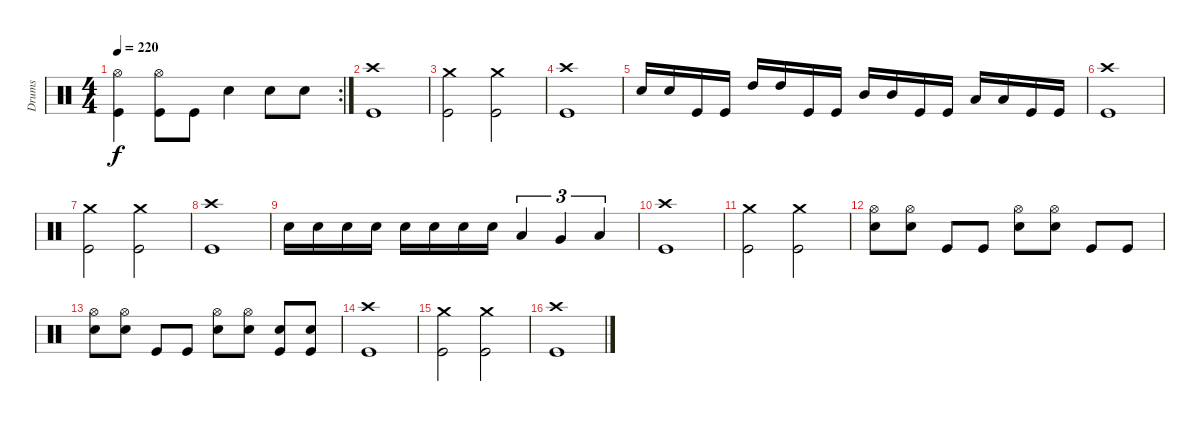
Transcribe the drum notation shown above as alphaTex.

\track ("Drums" "Drums") {instrument percussion}
\staff {score}
\articulation defaults
\rc 2
\ts (4 4)
\tempo 220
\clef neutral
\ks c
("Hi-Hat (open)" "Kick (hit)").4{dy f} ("Hi-Hat (open)" "Kick (hit)").8 "Kick (hit)".8 "Snare (hit) 2".4 "Snare (hit) 2".8 "Snare (hit) 2".8 |
("Crash high (hit)" "Kick (hit)").1 |
("Crash medium (hit)" "Kick (hit)").2 ("Crash medium (hit)" "Kick (hit)").2 |
("Crash high (hit)" "Kick (hit)").1 |
"Snare (hit) 2".16 "Snare (hit) 2".16 "Kick (hit)".16 "Kick (hit)".16 "High Tom (hit)".16 "High Tom (hit)".16 "Kick (hit)".16 "Kick (hit)".16 "Mid Tom (hit)".16 "Mid Tom (hit)".16 "Kick (hit)".16 "Kick (hit)".16 "Low Tom (hit)".16 "Low Tom (hit)".16 "Kick (hit)".16 "Kick (hit)".16 |
("Crash high (hit)" "Kick (hit)").1 |
("Crash medium (hit)" "Kick (hit)").2 ("Crash medium (hit)" "Kick (hit)").2 |
("Crash high (hit)" "Kick (hit)").1 |
"Snare (hit) 2".16 "Snare (hit) 2".16 "Snare (hit) 2".16 "Snare (hit) 2".16 "Snare (hit) 2".16 "Snare (hit) 2".16 "Snare (hit) 2".16 "Snare (hit) 2".16 "Low Tom (hit)".4{tu (3 2)} "Very Low Tom (hit)".4{tu (3 2)} "Low Floor Tom (hit)".4{tu (3 2)} |
("Crash high (hit)" "Kick (hit)").1 |
("Crash medium (hit)" "Kick (hit)").2 ("Crash medium (hit)" "Kick (hit)").2 |
("Hi-Hat (open)" "Snare (hit) 2").8 ("Hi-Hat (open)" "Snare (hit) 2").8 "Kick (hit)".8 "Kick (hit)".8 ("Hi-Hat (open)" "Snare (hit) 2").8 ("Hi-Hat (open)" "Snare (hit) 2").8 "Kick (hit)".8 "Kick (hit)".8 |
("Hi-Hat (open)" "Snare (hit) 2").8 ("Hi-Hat (open)" "Snare (hit) 2").8 "Kick (hit)".8 "Kick (hit)".8 ("Hi-Hat (open)" "Snare (hit) 2").8 ("Hi-Hat (open)" "Snare (hit) 2").8 ("Snare (hit) 2" "Kick (hit)").8 ("Snare (hit) 2" "Kick (hit)").8 |
("Crash high (hit)" "Kick (hit)").1 |
("Crash medium (hit)" "Kick (hit)").2 ("Crash medium (hit)" "Kick (hit)").2 |
("Crash high (hit)" "Kick (hit)").1
